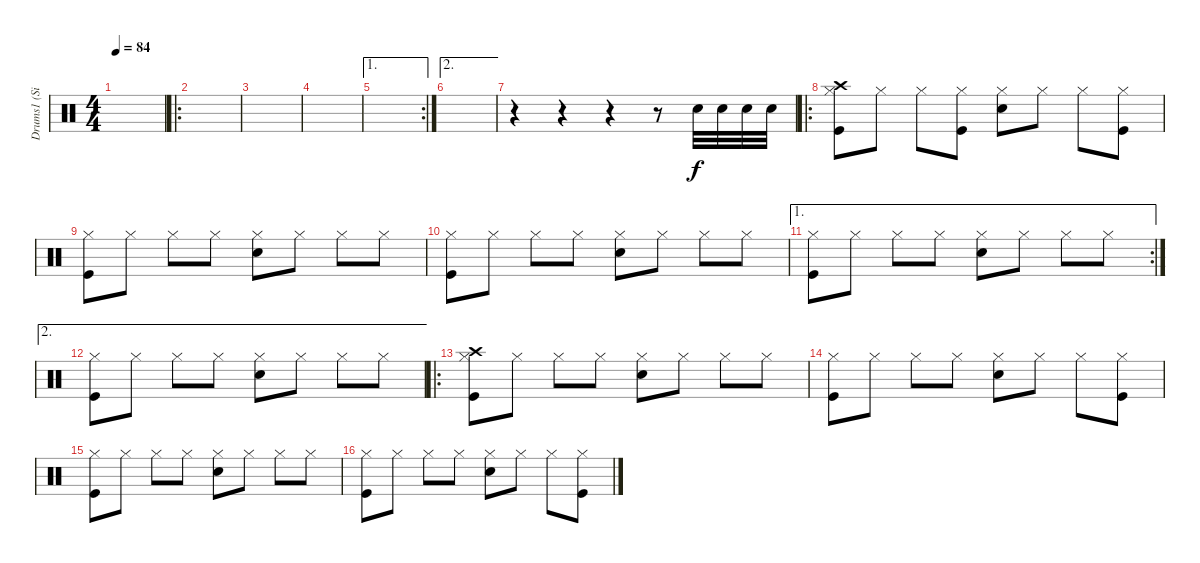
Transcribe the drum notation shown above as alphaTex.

\track ("Drums1 (Silas)" "Drums1 (Si") {instrument percussion}
\staff {score}
\articulation defaults
\ts (4 4)
\tempo 84
\clef neutral
\ks c
|
\ro
|
|
|
\ae 1
\rc 2
|
\ae 2
|
r.4 r.4 r.4 r.8 "Snare (hit) 2".32 "Snare (hit) 2".32 "Snare (hit) 2".32 "Snare (hit) 2".32 |
\ro
("Hi-Hat (closed)" "Kick (hit)" "Crash high (hit)").8 "Hi-Hat (closed)".8 "Hi-Hat (closed)".8 ("Hi-Hat (closed)" "Kick (hit)").8 ("Hi-Hat (closed)" "Snare (hit) 2").8 "Hi-Hat (closed)".8 "Hi-Hat (closed)".8 ("Hi-Hat (closed)" "Kick (hit)").8 |
("Hi-Hat (closed)" "Kick (hit)").8 "Hi-Hat (closed)".8 "Hi-Hat (closed)".8 "Hi-Hat (closed)".8 ("Hi-Hat (closed)" "Snare (hit) 2").8 "Hi-Hat (closed)".8 "Hi-Hat (closed)".8 "Hi-Hat (closed)".8 |
("Hi-Hat (closed)" "Kick (hit)").8 "Hi-Hat (closed)".8 "Hi-Hat (closed)".8 "Hi-Hat (closed)".8 ("Hi-Hat (closed)" "Snare (hit) 2").8 "Hi-Hat (closed)".8 "Hi-Hat (closed)".8 "Hi-Hat (closed)".8 |
\ae 1
\rc 2
("Hi-Hat (closed)" "Kick (hit)").8 "Hi-Hat (closed)".8 "Hi-Hat (closed)".8 "Hi-Hat (closed)".8 ("Hi-Hat (closed)" "Snare (hit) 2").8 "Hi-Hat (closed)".8 "Hi-Hat (closed)".8 "Hi-Hat (closed)".8 |
\ae 2
("Hi-Hat (closed)" "Kick (hit)").8 "Hi-Hat (closed)".8 "Hi-Hat (closed)".8 "Hi-Hat (closed)".8 ("Hi-Hat (closed)" "Snare (hit) 2").8 "Hi-Hat (closed)".8 "Hi-Hat (closed)".8 "Hi-Hat (closed)".8 |
\ro
("Hi-Hat (closed)" "Kick (hit)" "Crash high (hit)").8 "Hi-Hat (closed)".8 "Hi-Hat (closed)".8 "Hi-Hat (closed)".8 ("Hi-Hat (closed)" "Snare (hit) 2").8 "Hi-Hat (closed)".8 "Hi-Hat (closed)".8 "Hi-Hat (closed)".8 |
("Hi-Hat (closed)" "Kick (hit)").8 "Hi-Hat (closed)".8 "Hi-Hat (closed)".8 "Hi-Hat (closed)".8 ("Hi-Hat (closed)" "Snare (hit) 2").8 "Hi-Hat (closed)".8 "Hi-Hat (closed)".8 ("Hi-Hat (closed)" "Kick (hit)").8 |
("Hi-Hat (closed)" "Kick (hit)").8 "Hi-Hat (closed)".8 "Hi-Hat (closed)".8 "Hi-Hat (closed)".8 ("Hi-Hat (closed)" "Snare (hit) 2").8 "Hi-Hat (closed)".8 "Hi-Hat (closed)".8 "Hi-Hat (closed)".8 |
("Hi-Hat (closed)" "Kick (hit)").8 "Hi-Hat (closed)".8 "Hi-Hat (closed)".8 "Hi-Hat (closed)".8 ("Hi-Hat (closed)" "Snare (hit) 2").8 "Hi-Hat (closed)".8 "Hi-Hat (closed)".8 ("Hi-Hat (closed)" "Kick (hit)").8
